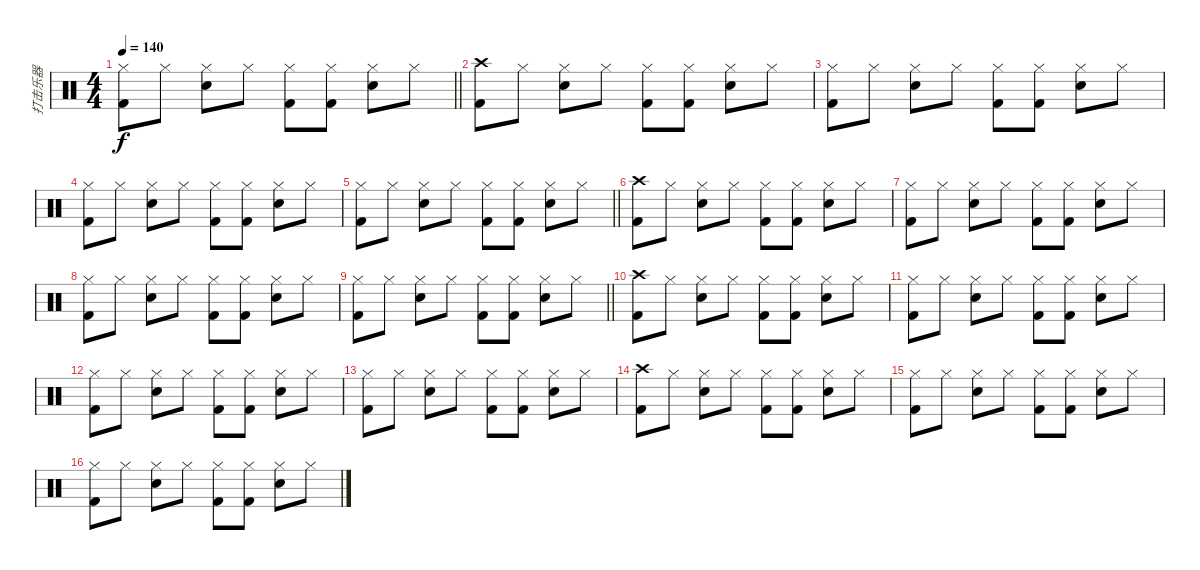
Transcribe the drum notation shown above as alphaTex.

\track ("打击乐器" "打击乐器") {instrument percussion}
\staff {score}
\articulation defaults
\ts (4 4)
\tempo 140
\clef neutral
\barLineRight lightlight
\ks c
("Hi-Hat (closed)" "Kick (hit) 2").8{dy f} "Hi-Hat (closed)".8 ("Hi-Hat (closed)" "Electric Snare (hit)").8 "Hi-Hat (closed)".8 ("Hi-Hat (closed)" "Kick (hit) 2").8 ("Hi-Hat (closed)" "Kick (hit) 2").8 ("Hi-Hat (closed)" "Electric Snare (hit)").8 "Hi-Hat (closed)".8 |
("Crash high (hit)" "Kick (hit) 2").8 "Hi-Hat (closed)".8 ("Hi-Hat (closed)" "Electric Snare (hit)").8 "Hi-Hat (closed)".8 ("Hi-Hat (closed)" "Kick (hit) 2").8 ("Hi-Hat (closed)" "Kick (hit) 2").8 ("Hi-Hat (closed)" "Electric Snare (hit)").8 "Hi-Hat (closed)".8 |
("Hi-Hat (closed)" "Kick (hit) 2").8 "Hi-Hat (closed)".8 ("Hi-Hat (closed)" "Electric Snare (hit)").8 "Hi-Hat (closed)".8 ("Hi-Hat (closed)" "Kick (hit) 2").8 ("Hi-Hat (closed)" "Kick (hit) 2").8 ("Hi-Hat (closed)" "Electric Snare (hit)").8 "Hi-Hat (closed)".8 |
("Hi-Hat (closed)" "Kick (hit) 2").8 "Hi-Hat (closed)".8 ("Hi-Hat (closed)" "Electric Snare (hit)").8 "Hi-Hat (closed)".8 ("Hi-Hat (closed)" "Kick (hit) 2").8 ("Hi-Hat (closed)" "Kick (hit) 2").8 ("Hi-Hat (closed)" "Electric Snare (hit)").8 "Hi-Hat (closed)".8 |
\barLineRight lightlight
("Hi-Hat (closed)" "Kick (hit) 2").8 "Hi-Hat (closed)".8 ("Hi-Hat (closed)" "Electric Snare (hit)").8 "Hi-Hat (closed)".8 ("Hi-Hat (closed)" "Kick (hit) 2").8 ("Hi-Hat (closed)" "Kick (hit) 2").8 ("Hi-Hat (closed)" "Electric Snare (hit)").8 "Hi-Hat (closed)".8 |
("Crash high (hit)" "Kick (hit) 2").8 "Hi-Hat (closed)".8 ("Hi-Hat (closed)" "Electric Snare (hit)").8 "Hi-Hat (closed)".8 ("Hi-Hat (closed)" "Kick (hit) 2").8 ("Hi-Hat (closed)" "Kick (hit) 2").8 ("Hi-Hat (closed)" "Electric Snare (hit)").8 "Hi-Hat (closed)".8 |
("Hi-Hat (closed)" "Kick (hit) 2").8 "Hi-Hat (closed)".8 ("Hi-Hat (closed)" "Electric Snare (hit)").8 "Hi-Hat (closed)".8 ("Hi-Hat (closed)" "Kick (hit) 2").8 ("Hi-Hat (closed)" "Kick (hit) 2").8 ("Hi-Hat (closed)" "Electric Snare (hit)").8 "Hi-Hat (closed)".8 |
("Hi-Hat (closed)" "Kick (hit) 2").8 "Hi-Hat (closed)".8 ("Hi-Hat (closed)" "Electric Snare (hit)").8 "Hi-Hat (closed)".8 ("Hi-Hat (closed)" "Kick (hit) 2").8 ("Hi-Hat (closed)" "Kick (hit) 2").8 ("Hi-Hat (closed)" "Electric Snare (hit)").8 "Hi-Hat (closed)".8 |
\barLineRight lightlight
("Hi-Hat (closed)" "Kick (hit) 2").8 "Hi-Hat (closed)".8 ("Hi-Hat (closed)" "Electric Snare (hit)").8 "Hi-Hat (closed)".8 ("Hi-Hat (closed)" "Kick (hit) 2").8 ("Hi-Hat (closed)" "Kick (hit) 2").8 ("Hi-Hat (closed)" "Electric Snare (hit)").8 "Hi-Hat (closed)".8 |
("Crash high (hit)" "Kick (hit) 2").8 "Hi-Hat (closed)".8 ("Hi-Hat (closed)" "Electric Snare (hit)").8 "Hi-Hat (closed)".8 ("Hi-Hat (closed)" "Kick (hit) 2").8 ("Hi-Hat (closed)" "Kick (hit) 2").8 ("Hi-Hat (closed)" "Electric Snare (hit)").8 "Hi-Hat (closed)".8 |
("Hi-Hat (closed)" "Kick (hit) 2").8 "Hi-Hat (closed)".8 ("Hi-Hat (closed)" "Electric Snare (hit)").8 "Hi-Hat (closed)".8 ("Hi-Hat (closed)" "Kick (hit) 2").8 ("Hi-Hat (closed)" "Kick (hit) 2").8 ("Hi-Hat (closed)" "Electric Snare (hit)").8 "Hi-Hat (closed)".8 |
("Hi-Hat (closed)" "Kick (hit) 2").8 "Hi-Hat (closed)".8 ("Hi-Hat (closed)" "Electric Snare (hit)").8 "Hi-Hat (closed)".8 ("Hi-Hat (closed)" "Kick (hit) 2").8 ("Hi-Hat (closed)" "Kick (hit) 2").8 ("Hi-Hat (closed)" "Electric Snare (hit)").8 "Hi-Hat (closed)".8 |
("Hi-Hat (closed)" "Kick (hit) 2").8 "Hi-Hat (closed)".8 ("Hi-Hat (closed)" "Electric Snare (hit)").8 "Hi-Hat (closed)".8 ("Hi-Hat (closed)" "Kick (hit) 2").8 ("Hi-Hat (closed)" "Kick (hit) 2").8 ("Hi-Hat (closed)" "Electric Snare (hit)").8 "Hi-Hat (closed)".8 |
("Crash high (hit)" "Kick (hit) 2").8 "Hi-Hat (closed)".8 ("Hi-Hat (closed)" "Electric Snare (hit)").8 "Hi-Hat (closed)".8 ("Hi-Hat (closed)" "Kick (hit) 2").8 ("Hi-Hat (closed)" "Kick (hit) 2").8 ("Hi-Hat (closed)" "Electric Snare (hit)").8 "Hi-Hat (closed)".8 |
("Hi-Hat (closed)" "Kick (hit) 2").8 "Hi-Hat (closed)".8 ("Hi-Hat (closed)" "Electric Snare (hit)").8 "Hi-Hat (closed)".8 ("Hi-Hat (closed)" "Kick (hit) 2").8 ("Hi-Hat (closed)" "Kick (hit) 2").8 ("Hi-Hat (closed)" "Electric Snare (hit)").8 "Hi-Hat (closed)".8 |
("Hi-Hat (closed)" "Kick (hit) 2").8 "Hi-Hat (closed)".8 ("Hi-Hat (closed)" "Electric Snare (hit)").8 "Hi-Hat (closed)".8 ("Hi-Hat (closed)" "Kick (hit) 2").8 ("Hi-Hat (closed)" "Kick (hit) 2").8 ("Hi-Hat (closed)" "Electric Snare (hit)").8 "Hi-Hat (closed)".8
